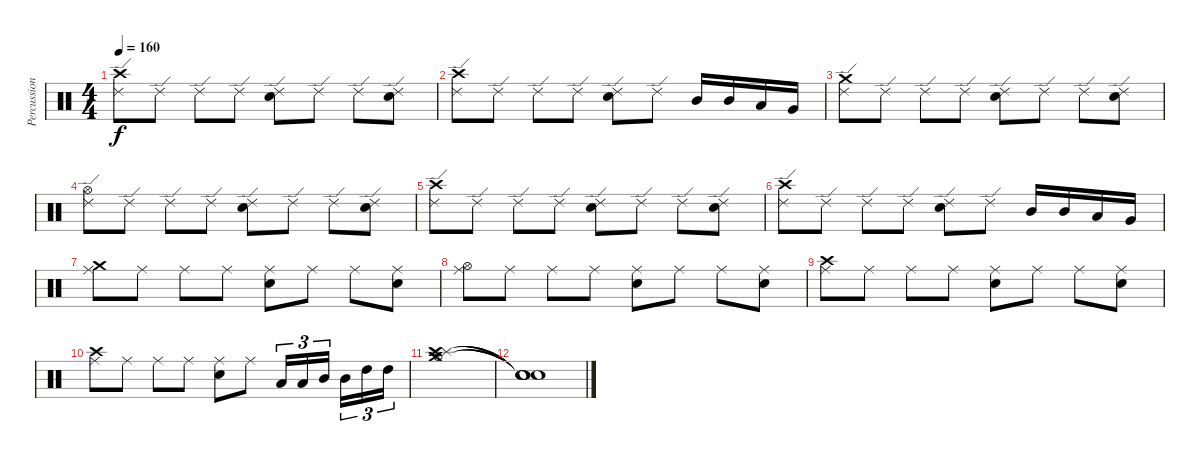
\track ("Percussion" "Percussion") {instrument percussion}
\staff {score}
\articulation defaults
\ts (4 4)
\tempo 160
\clef neutral
\ks c
("Crash high (hit)" "Ride (edge) 2").8{dy f} "Ride (edge) 2".8 "Ride (edge) 2".8 "Ride (edge) 2".8 ("Snare (hit) 2" "Ride (edge) 2").8 "Ride (edge) 2".8 "Ride (edge) 2".8 ("Snare (hit) 2" "Ride (edge) 2").8 |
("Crash high (hit)" "Ride (edge) 2").8 "Ride (edge) 2".8 "Ride (edge) 2".8 "Ride (edge) 2".8 ("Snare (hit) 2" "Ride (edge) 2").8 "Ride (edge) 2".8 "Mid Tom (hit)".16 "Mid Tom (hit)".16 "Low Tom (hit)".16 "Very Low Tom (hit)".16 |
("Crash medium (hit)" "Ride (edge) 2").8 "Ride (edge) 2".8 "Ride (edge) 2".8 "Ride (edge) 2".8 ("Snare (hit) 2" "Ride (edge) 2").8 "Ride (edge) 2".8 "Ride (edge) 2".8 ("Snare (hit) 2" "Ride (edge) 2").8 |
("Hi-Hat (open)" "Ride (edge) 2").8 "Ride (edge) 2".8 "Ride (edge) 2".8 "Ride (edge) 2".8 ("Snare (hit) 2" "Ride (edge) 2").8 "Ride (edge) 2".8 "Ride (edge) 2".8 ("Snare (hit) 2" "Ride (edge) 2").8 |
("Crash high (hit)" "Ride (edge) 2").8 "Ride (edge) 2".8 "Ride (edge) 2".8 "Ride (edge) 2".8 ("Snare (hit) 2" "Ride (edge) 2").8 "Ride (edge) 2".8 "Ride (edge) 2".8 ("Snare (hit) 2" "Ride (edge) 2").8 |
("Crash high (hit)" "Ride (edge) 2").8 "Ride (edge) 2".8 "Ride (edge) 2".8 "Ride (edge) 2".8 ("Snare (hit) 2" "Ride (edge) 2").8 "Ride (edge) 2".8 "Mid Tom (hit)".16 "Mid Tom (hit)".16 "Low Tom (hit)".16 "Very Low Tom (hit)".16 |
("Crash medium (hit)" "Ride (middle)").8 "Ride (middle)".8 "Ride (middle)".8 "Ride (middle)".8 ("Snare (hit) 2" "Ride (middle)").8 "Ride (middle)".8 "Ride (middle)".8 ("Snare (hit) 2" "Ride (middle)").8 |
("Hi-Hat (open)" "Ride (middle)").8 "Ride (middle)".8 "Ride (middle)".8 "Ride (middle)".8 ("Snare (hit) 2" "Ride (middle)").8 "Ride (middle)".8 "Ride (middle)".8 ("Snare (hit) 2" "Ride (middle)").8 |
("Crash high (hit)" "Ride (middle)").8 "Ride (middle)".8 "Ride (middle)".8 "Ride (middle)".8 ("Snare (hit) 2" "Ride (middle)").8 "Ride (middle)".8 "Ride (middle)".8 ("Snare (hit) 2" "Ride (middle)").8 |
("Crash high (hit)" "Ride (middle)").8 "Ride (middle)".8 "Ride (middle)".8 "Ride (middle)".8 ("Snare (hit) 2" "Ride (middle)").8 "Ride (middle)".8 "Low Tom (hit)".16{tu (3 2)} "Low Tom (hit)".16{tu (3 2)} "Mid Tom (hit)".16{tu (3 2)} "Mid Tom (hit)".16{tu (3 2)} "High Tom (hit)".16{tu (3 2)} "High Tom (hit)".16{tu (3 2)} |
("Crash medium (hit)" "Hi-Hat (open)" "Splash (hit)" "Crash high (hit)").1 |
("Snare (hit)"{t} "Snare (hit)"{t} "Snare (hit)"{t} "Snare (hit)"{t}).1
